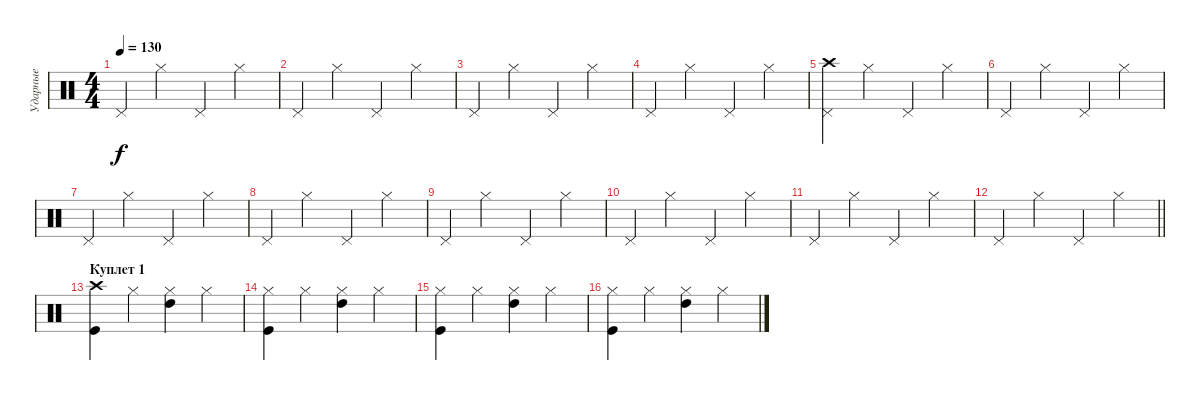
\track ("Ударные" "Ударные") {instrument percussion}
\staff {score}
\articulation defaults
\ts (4 4)
\tempo 130
\clef neutral
\ks c "Pedal Hi-Hat (hit)".4{dy f} "Hi-Hat (closed)".4 "Pedal Hi-Hat (hit)".4 "Hi-Hat (closed)".4
|
"Pedal Hi-Hat (hit)".4 "Hi-Hat (closed)".4 "Pedal Hi-Hat (hit)".4 "Hi-Hat (closed)".4 |
"Pedal Hi-Hat (hit)".4 "Hi-Hat (closed)".4 "Pedal Hi-Hat (hit)".4 "Hi-Hat (closed)".4 |
"Pedal Hi-Hat (hit)".4 "Hi-Hat (closed)".4 "Pedal Hi-Hat (hit)".4 "Hi-Hat (closed)".4 |
("Crash high (hit)" "Pedal Hi-Hat (hit)").4 "Hi-Hat (closed)".4 "Pedal Hi-Hat (hit)".4 "Hi-Hat (closed)".4 |
"Pedal Hi-Hat (hit)".4 "Hi-Hat (closed)".4 "Pedal Hi-Hat (hit)".4 "Hi-Hat (closed)".4 |
"Pedal Hi-Hat (hit)".4 "Hi-Hat (closed)".4 "Pedal Hi-Hat (hit)".4 "Hi-Hat (closed)".4 |
"Pedal Hi-Hat (hit)".4 "Hi-Hat (closed)".4 "Pedal Hi-Hat (hit)".4 "Hi-Hat (closed)".4 |
"Pedal Hi-Hat (hit)".4 "Hi-Hat (closed)".4 "Pedal Hi-Hat (hit)".4 "Hi-Hat (closed)".4 |
"Pedal Hi-Hat (hit)".4 "Hi-Hat (closed)".4 "Pedal Hi-Hat (hit)".4 "Hi-Hat (closed)".4 |
"Pedal Hi-Hat (hit)".4 "Hi-Hat (closed)".4 "Pedal Hi-Hat (hit)".4 "Hi-Hat (closed)".4 |
\barLineRight lightlight "Pedal Hi-Hat (hit)".4 "Hi-Hat (closed)".4 "Pedal Hi-Hat (hit)".4 "Hi-Hat (closed)".4
|
\section ("" "Куплет 1")
("Crash high (hit)" "Kick (hit)").4 "Hi-Hat (closed)".4 ("Hi-Hat (closed)" "High Tom (hit)").4 "Hi-Hat (closed)".4 |
("Hi-Hat (closed)" "Kick (hit)").4 "Hi-Hat (closed)".4 ("Hi-Hat (closed)" "High Tom (hit)").4 "Hi-Hat (closed)".4 |
("Hi-Hat (closed)" "Kick (hit)").4 "Hi-Hat (closed)".4 ("Hi-Hat (closed)" "High Tom (hit)").4 "Hi-Hat (closed)".4 |
("Hi-Hat (closed)" "Kick (hit)").4 "Hi-Hat (closed)".4 ("Hi-Hat (closed)" "High Tom (hit)").4 "Hi-Hat (closed)".4
